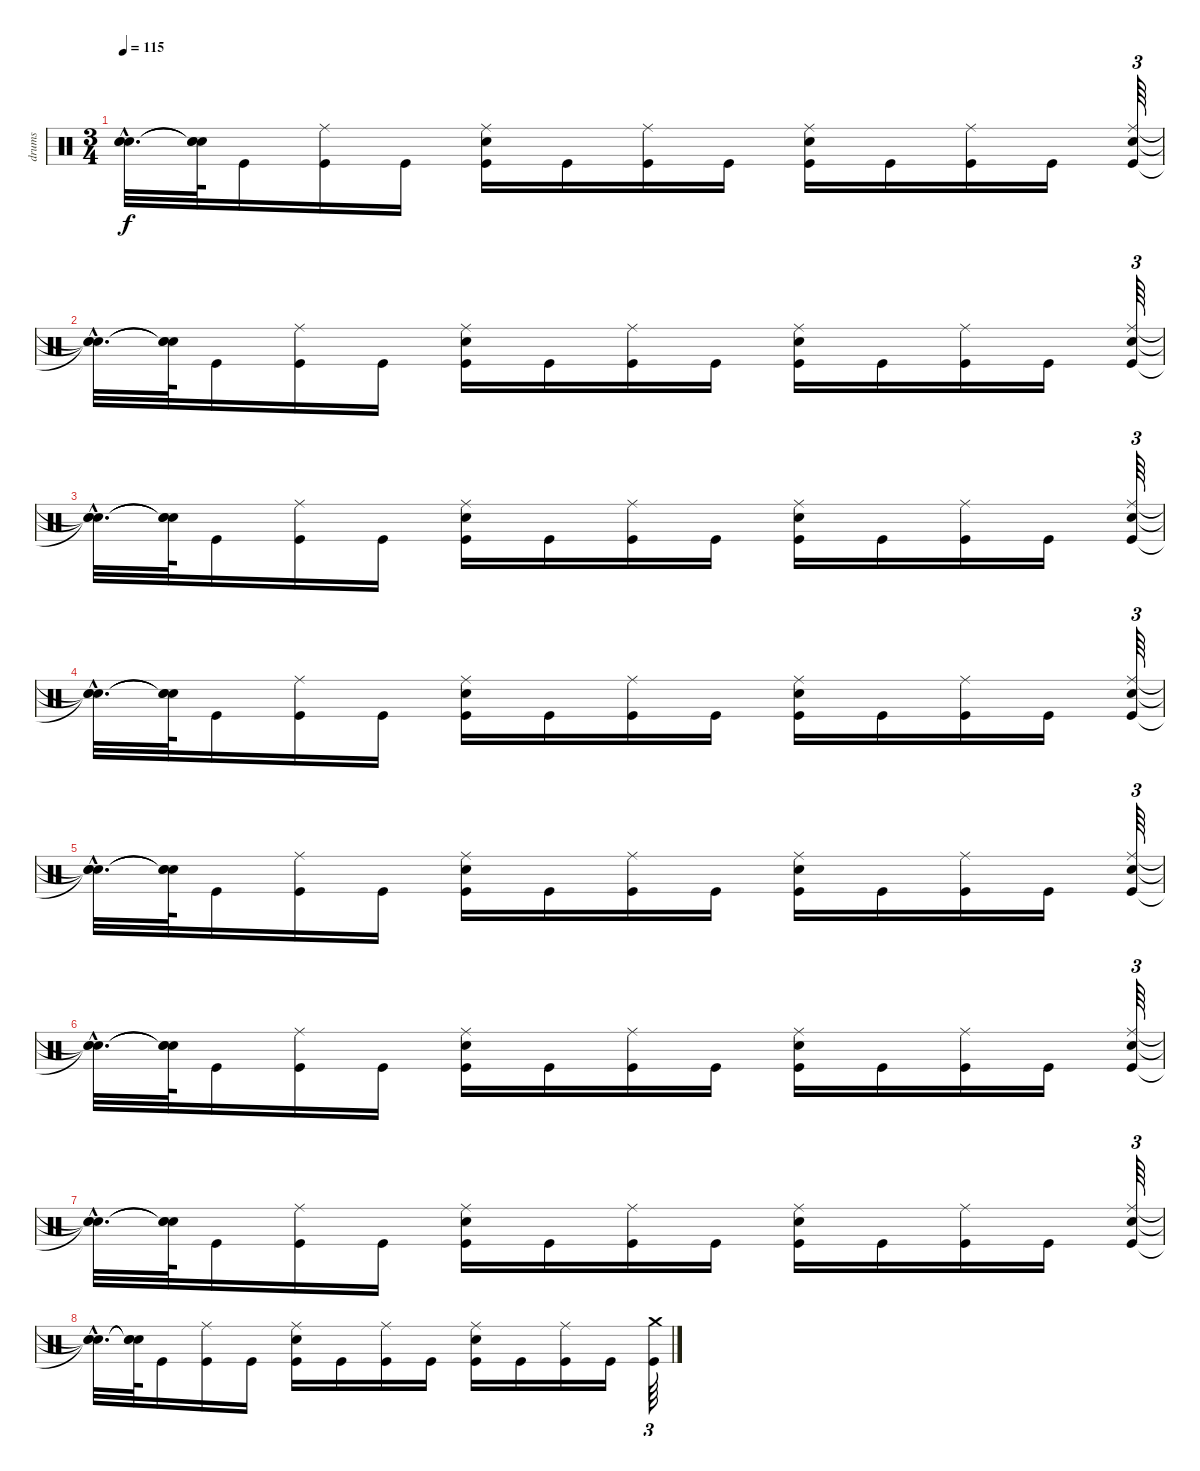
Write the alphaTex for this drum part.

\track ("drums" "drums") {instrument percussion}
\staff {score}
\articulation defaults
\ts (3 4)
\tempo 115
\clef neutral
\ks c
("Snare (hit)"{hac t} "Snare (hit)"{hac t} "Snare (hit)"{hac t}).32{d dy f} ("Snare (hit)"{t} "Snare (hit)"{t} "Snare (hit)"{t}).64 "Kick (hit)".16 ("Ride (middle)" "Kick (hit)").16 "Kick (hit)".16 ("Kick (hit)" "Ride (middle)" "Electric Snare (hit)").16 "Kick (hit)".16 ("Ride (middle)" "Kick (hit)").16 "Kick (hit)".16 ("Kick (hit)" "Ride (middle)" "Electric Snare (hit)").16 "Kick (hit)".16 ("Ride (middle)" "Kick (hit)").16 "Kick (hit)".16 ("Kick (hit)" "Ride (middle)" "Electric Snare (hit)").64{tu (3 2)} |
("Snare (hit)"{hac t} "Snare (hit)"{hac t} "Snare (hit)"{hac t}).32{d} ("Snare (hit)"{t} "Snare (hit)"{t} "Snare (hit)"{t}).64 "Kick (hit)".16 ("Ride (middle)" "Kick (hit)").16 "Kick (hit)".16 ("Kick (hit)" "Ride (middle)" "Electric Snare (hit)").16 "Kick (hit)".16 ("Ride (middle)" "Kick (hit)").16 "Kick (hit)".16 ("Kick (hit)" "Ride (middle)" "Electric Snare (hit)").16 "Kick (hit)".16 ("Ride (middle)" "Kick (hit)").16 "Kick (hit)".16 ("Kick (hit)" "Ride (middle)" "Electric Snare (hit)").64{tu (3 2)} |
("Snare (hit)"{hac t} "Snare (hit)"{hac t} "Snare (hit)"{hac t}).32{d} ("Snare (hit)"{t} "Snare (hit)"{t} "Snare (hit)"{t}).64 "Kick (hit)".16 ("Ride (middle)" "Kick (hit)").16 "Kick (hit)".16 ("Kick (hit)" "Ride (middle)" "Electric Snare (hit)").16 "Kick (hit)".16 ("Ride (middle)" "Kick (hit)").16 "Kick (hit)".16 ("Kick (hit)" "Ride (middle)" "Electric Snare (hit)").16 "Kick (hit)".16 ("Ride (middle)" "Kick (hit)").16 "Kick (hit)".16 ("Kick (hit)" "Ride (middle)" "Electric Snare (hit)").64{tu (3 2)} |
("Snare (hit)"{hac t} "Snare (hit)"{hac t} "Snare (hit)"{hac t}).32{d} ("Snare (hit)"{t} "Snare (hit)"{t} "Snare (hit)"{t}).64 "Kick (hit)".16 ("Ride (middle)" "Kick (hit)").16 "Kick (hit)".16 ("Kick (hit)" "Ride (middle)" "Electric Snare (hit)").16 "Kick (hit)".16 ("Ride (middle)" "Kick (hit)").16 "Kick (hit)".16 ("Kick (hit)" "Ride (middle)" "Electric Snare (hit)").16 "Kick (hit)".16 ("Ride (middle)" "Kick (hit)").16 "Kick (hit)".16 ("Kick (hit)" "Ride (middle)" "Electric Snare (hit)").64{tu (3 2)} |
("Snare (hit)"{hac t} "Snare (hit)"{hac t} "Snare (hit)"{hac t}).32{d} ("Snare (hit)"{t} "Snare (hit)"{t} "Snare (hit)"{t}).64 "Kick (hit)".16 ("Ride (middle)" "Kick (hit)").16 "Kick (hit)".16 ("Kick (hit)" "Ride (middle)" "Electric Snare (hit)").16 "Kick (hit)".16 ("Ride (middle)" "Kick (hit)").16 "Kick (hit)".16 ("Kick (hit)" "Ride (middle)" "Electric Snare (hit)").16 "Kick (hit)".16 ("Ride (middle)" "Kick (hit)").16 "Kick (hit)".16 ("Kick (hit)" "Ride (middle)" "Electric Snare (hit)").64{tu (3 2)} |
("Snare (hit)"{hac t} "Snare (hit)"{hac t} "Snare (hit)"{hac t}).32{d} ("Snare (hit)"{t} "Snare (hit)"{t} "Snare (hit)"{t}).64 "Kick (hit)".16 ("Ride (middle)" "Kick (hit)").16 "Kick (hit)".16 ("Kick (hit)" "Ride (middle)" "Electric Snare (hit)").16 "Kick (hit)".16 ("Ride (middle)" "Kick (hit)").16 "Kick (hit)".16 ("Kick (hit)" "Ride (middle)" "Electric Snare (hit)").16 "Kick (hit)".16 ("Ride (middle)" "Kick (hit)").16 "Kick (hit)".16 ("Kick (hit)" "Ride (middle)" "Electric Snare (hit)").64{tu (3 2)} |
("Snare (hit)"{hac t} "Snare (hit)"{hac t} "Snare (hit)"{hac t}).32{d} ("Snare (hit)"{t} "Snare (hit)"{t} "Snare (hit)"{t}).64 "Kick (hit)".16 ("Ride (middle)" "Kick (hit)").16 "Kick (hit)".16 ("Kick (hit)" "Ride (middle)" "Electric Snare (hit)").16 "Kick (hit)".16 ("Ride (middle)" "Kick (hit)").16 "Kick (hit)".16 ("Kick (hit)" "Ride (middle)" "Electric Snare (hit)").16 "Kick (hit)".16 ("Ride (middle)" "Kick (hit)").16 "Kick (hit)".16 ("Kick (hit)" "Ride (middle)" "Electric Snare (hit)").64{tu (3 2)} |
("Snare (hit)"{hac t} "Snare (hit)"{hac t} "Snare (hit)"{hac t}).32{d} ("Snare (hit)"{t} "Snare (hit)"{t} "Snare (hit)"{t}).64 "Kick (hit)".16 ("Ride (middle)" "Kick (hit)").16 "Kick (hit)".16 ("Kick (hit)" "Ride (middle)" "Electric Snare (hit)").16 "Kick (hit)".16 ("Ride (middle)" "Kick (hit)").16 "Kick (hit)".16 ("Kick (hit)" "Ride (middle)" "Electric Snare (hit)").16 "Kick (hit)".16 ("Ride (middle)" "Kick (hit)").16 "Kick (hit)".16 ("Crash medium (hit)" "Kick (hit)").64{tu (3 2)}
